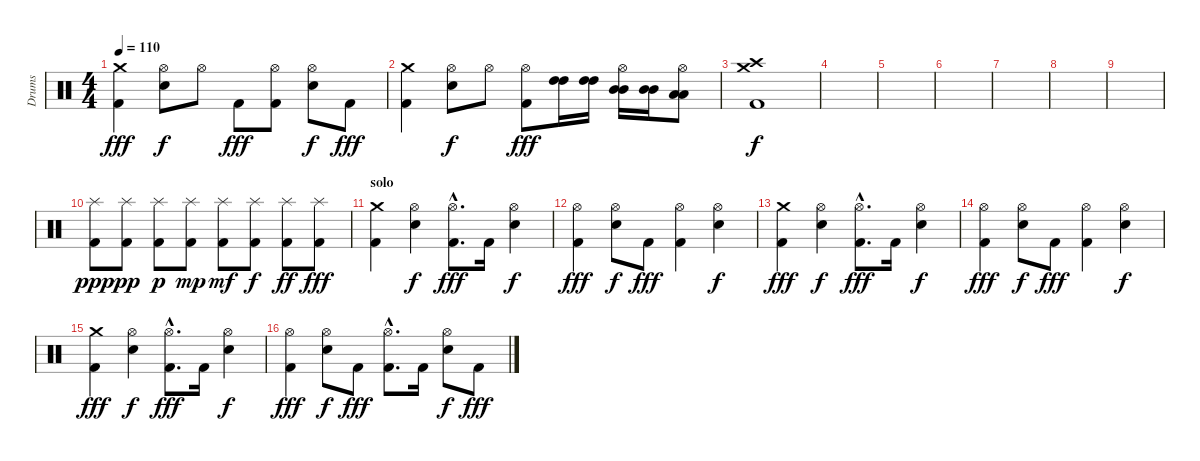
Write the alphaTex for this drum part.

\track ("Drums" "Drums") {instrument percussion}
\staff {score}
\articulation defaults
\ts (4 4)
\tempo 110
\clef neutral
\ks c
("Crash medium (hit)" "Kick (hit) 2").4{dy fff} ("Hi-Hat (open)" "Electric Snare (hit)").8{dy f} "Hi-Hat (open)".8 "Kick (hit) 2".8{dy fff} ("Hi-Hat (open)" "Kick (hit) 2").8 ("Hi-Hat (open)" "Electric Snare (hit)").8{dy f} "Kick (hit) 2".8{dy fff} |
("Crash medium (hit)" "Kick (hit) 2").4 ("Hi-Hat (open)" "Electric Snare (hit)").8{dy f} "Hi-Hat (open)".8 ("Hi-Hat (open)" "Kick (hit) 2").8{dy fff} ("High Tom (hit)" "High Tom (hit)").16 ("High Tom (hit)" "High Tom (hit)").16 ("Hi-Hat (open)" "Mid Tom (hit)" "Mid Tom (hit)").16 ("Mid Tom (hit)" "Mid Tom (hit)").16 ("Hi-Hat (open)" "Low Tom (hit)" "Low Tom (hit)").8 |
("Crash high (hit)" "Crash medium (hit)" "Kick (hit) 2").1{dy f} |
|
|
|
|
|
|
("Splash (hit)" "Kick (hit) 2").8{dy ppp} ("Splash (hit)" "Kick (hit) 2").8{dy pp} ("Splash (hit)" "Kick (hit) 2").8{dy p} ("Splash (hit)" "Kick (hit) 2").8{dy mp} ("Splash (hit)" "Kick (hit) 2").8{dy mf} ("Splash (hit)" "Kick (hit) 2").8{dy f} ("Splash (hit)" "Kick (hit) 2").8{dy ff} ("Splash (hit)" "Kick (hit) 2").8{dy fff} |
\section ("" "solo")
("Crash medium (hit)" "Kick (hit) 2").4 ("Hi-Hat (open)" "Electric Snare (hit)").4{dy f} ("Hi-Hat (open)"{hac} "Kick (hit) 2"{hac}).8{d dy fff} "Kick (hit) 2".16 ("Hi-Hat (open)" "Electric Snare (hit)").4{dy f} |
("Hi-Hat (open)" "Kick (hit) 2").4{dy fff} ("Hi-Hat (open)" "Electric Snare (hit)").8{dy f} "Kick (hit) 2".8{dy fff} ("Hi-Hat (open)" "Kick (hit) 2").4 ("Hi-Hat (open)" "Electric Snare (hit)").4{dy f} |
("Crash medium (hit)" "Kick (hit) 2").4{dy fff} ("Hi-Hat (open)" "Electric Snare (hit)").4{dy f} ("Hi-Hat (open)"{hac} "Kick (hit) 2"{hac}).8{d dy fff} "Kick (hit) 2".16 ("Hi-Hat (open)" "Electric Snare (hit)").4{dy f} |
("Hi-Hat (open)" "Kick (hit) 2").4{dy fff} ("Hi-Hat (open)" "Electric Snare (hit)").8{dy f} "Kick (hit) 2".8{dy fff} ("Hi-Hat (open)" "Kick (hit) 2").4 ("Hi-Hat (open)" "Electric Snare (hit)").4{dy f} |
("Crash medium (hit)" "Kick (hit) 2").4{dy fff} ("Hi-Hat (open)" "Electric Snare (hit)").4{dy f} ("Hi-Hat (open)"{hac} "Kick (hit) 2"{hac}).8{d dy fff} "Kick (hit) 2".16 ("Hi-Hat (open)" "Electric Snare (hit)").4{dy f} |
("Hi-Hat (open)" "Kick (hit) 2").4{dy fff} ("Hi-Hat (open)" "Electric Snare (hit)").8{dy f} "Kick (hit) 2".8{dy fff} ("Hi-Hat (open)"{hac} "Kick (hit) 2"{hac}).8{d} "Kick (hit) 2".16 ("Hi-Hat (open)" "Electric Snare (hit)").8{dy f} "Kick (hit) 2".8{dy fff}
